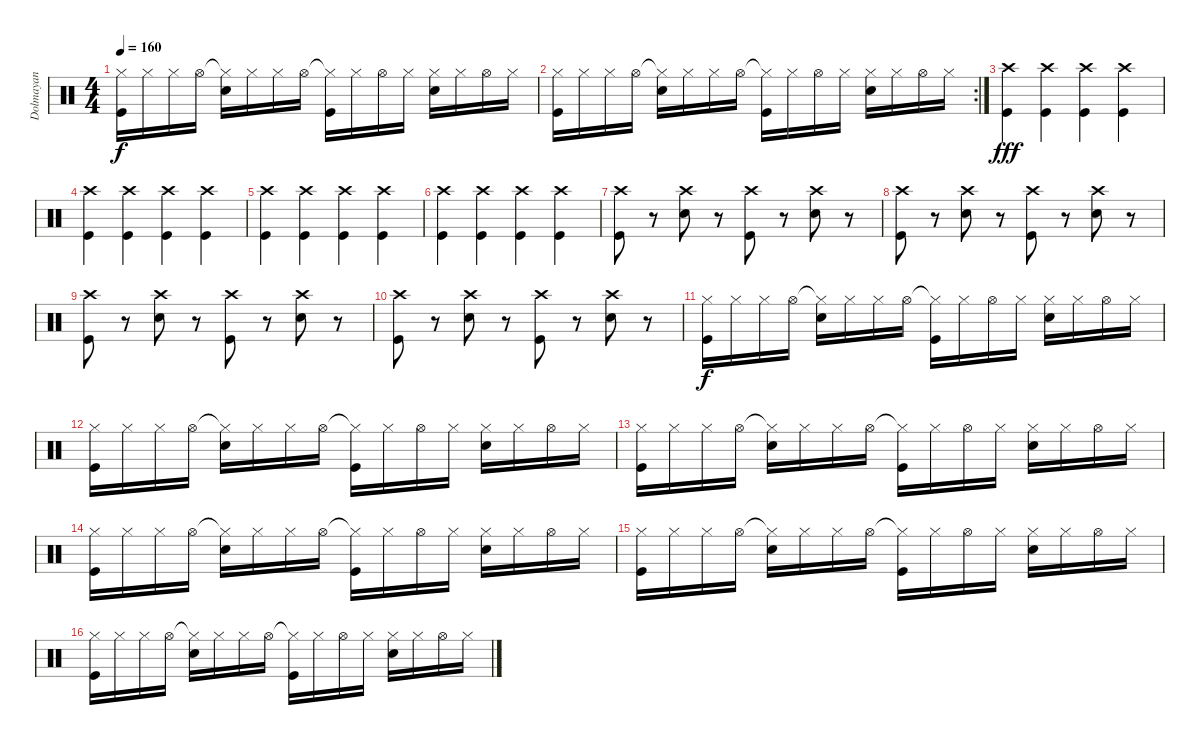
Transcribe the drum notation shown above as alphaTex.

\track ("Dolmayan" "Dolmayan") {instrument percussion}
\staff {score}
\articulation defaults
\ts (4 4)
\tempo 160
\clef neutral
\ks c
("Hi-Hat (closed)" "Kick (hit)").16{dy f} "Hi-Hat (closed)".16 "Hi-Hat (closed)".16 "Hi-Hat (open)".16 ("Hi-Hat (closed)"{t} "Electric Snare (hit)").16 "Hi-Hat (closed)".16 "Hi-Hat (closed)".16 "Hi-Hat (open)".16 ("Hi-Hat (closed)"{t} "Kick (hit)").16 "Hi-Hat (closed)".16 "Hi-Hat (open)".16 "Hi-Hat (closed)".16 ("Hi-Hat (closed)" "Electric Snare (hit)").16 "Hi-Hat (closed)".16 "Hi-Hat (open)".16 "Hi-Hat (closed)".16 |
\rc 2
("Hi-Hat (closed)" "Kick (hit)").16 "Hi-Hat (closed)".16 "Hi-Hat (closed)".16 "Hi-Hat (open)".16 ("Hi-Hat (closed)"{t} "Electric Snare (hit)").16 "Hi-Hat (closed)".16 "Hi-Hat (closed)".16 "Hi-Hat (open)".16 ("Hi-Hat (closed)"{t} "Kick (hit)").16 "Hi-Hat (closed)".16 "Hi-Hat (open)".16 "Hi-Hat (closed)".16 ("Hi-Hat (closed)" "Electric Snare (hit)").16 "Hi-Hat (closed)".16 "Hi-Hat (open)".16 "Hi-Hat (closed)".16 |
("Crash high (hit)" "Kick (hit)").4{dy fff} ("Crash high (hit)" "Kick (hit)").4 ("Crash high (hit)" "Kick (hit)").4 ("Crash high (hit)" "Kick (hit)").4 |
("Crash high (hit)" "Kick (hit)").4 ("Crash high (hit)" "Kick (hit)").4 ("Crash high (hit)" "Kick (hit)").4 ("Crash high (hit)" "Kick (hit)").4 |
("Crash high (hit)" "Kick (hit)").4 ("Crash high (hit)" "Kick (hit)").4 ("Crash high (hit)" "Kick (hit)").4 ("Crash high (hit)" "Kick (hit)").4 |
("Crash high (hit)" "Kick (hit)").4 ("Crash high (hit)" "Kick (hit)").4 ("Crash high (hit)" "Kick (hit)").4 ("Crash high (hit)" "Kick (hit)").4 |
("Crash high (hit)" "Kick (hit)").8 r.8 ("Crash high (hit)" "Electric Snare (hit)").8 r.8 ("Crash high (hit)" "Kick (hit)").8 r.8 ("Crash high (hit)" "Electric Snare (hit)").8 r.8 |
("Crash high (hit)" "Kick (hit)").8 r.8 ("Crash high (hit)" "Electric Snare (hit)").8 r.8 ("Crash high (hit)" "Kick (hit)").8 r.8 ("Crash high (hit)" "Electric Snare (hit)").8 r.8 |
("Crash high (hit)" "Kick (hit)").8 r.8 ("Crash high (hit)" "Electric Snare (hit)").8 r.8 ("Crash high (hit)" "Kick (hit)").8 r.8 ("Crash high (hit)" "Electric Snare (hit)").8 r.8 |
("Crash high (hit)" "Kick (hit)").8 r.8 ("Crash high (hit)" "Electric Snare (hit)").8 r.8 ("Crash high (hit)" "Kick (hit)").8 r.8 ("Crash high (hit)" "Electric Snare (hit)").8 r.8 |
("Hi-Hat (closed)" "Kick (hit)").16{dy f} "Hi-Hat (closed)".16 "Hi-Hat (closed)".16 "Hi-Hat (open)".16 ("Hi-Hat (closed)"{t} "Electric Snare (hit)").16 "Hi-Hat (closed)".16 "Hi-Hat (closed)".16 "Hi-Hat (open)".16 ("Hi-Hat (closed)"{t} "Kick (hit)").16 "Hi-Hat (closed)".16 "Hi-Hat (open)".16 "Hi-Hat (closed)".16 ("Hi-Hat (closed)" "Electric Snare (hit)").16 "Hi-Hat (closed)".16 "Hi-Hat (open)".16 "Hi-Hat (closed)".16 |
("Hi-Hat (closed)" "Kick (hit)").16 "Hi-Hat (closed)".16 "Hi-Hat (closed)".16 "Hi-Hat (open)".16 ("Hi-Hat (closed)"{t} "Electric Snare (hit)").16 "Hi-Hat (closed)".16 "Hi-Hat (closed)".16 "Hi-Hat (open)".16 ("Hi-Hat (closed)"{t} "Kick (hit)").16 "Hi-Hat (closed)".16 "Hi-Hat (open)".16 "Hi-Hat (closed)".16 ("Hi-Hat (closed)" "Electric Snare (hit)").16 "Hi-Hat (closed)".16 "Hi-Hat (open)".16 "Hi-Hat (closed)".16 |
("Hi-Hat (closed)" "Kick (hit)").16 "Hi-Hat (closed)".16 "Hi-Hat (closed)".16 "Hi-Hat (open)".16 ("Hi-Hat (closed)"{t} "Electric Snare (hit)").16 "Hi-Hat (closed)".16 "Hi-Hat (closed)".16 "Hi-Hat (open)".16 ("Hi-Hat (closed)"{t} "Kick (hit)").16 "Hi-Hat (closed)".16 "Hi-Hat (open)".16 "Hi-Hat (closed)".16 ("Hi-Hat (closed)" "Electric Snare (hit)").16 "Hi-Hat (closed)".16 "Hi-Hat (open)".16 "Hi-Hat (closed)".16 |
("Hi-Hat (closed)" "Kick (hit)").16 "Hi-Hat (closed)".16 "Hi-Hat (closed)".16 "Hi-Hat (open)".16 ("Hi-Hat (closed)"{t} "Electric Snare (hit)").16 "Hi-Hat (closed)".16 "Hi-Hat (closed)".16 "Hi-Hat (open)".16 ("Hi-Hat (closed)"{t} "Kick (hit)").16 "Hi-Hat (closed)".16 "Hi-Hat (open)".16 "Hi-Hat (closed)".16 ("Hi-Hat (closed)" "Electric Snare (hit)").16 "Hi-Hat (closed)".16 "Hi-Hat (open)".16 "Hi-Hat (closed)".16 |
("Hi-Hat (closed)" "Kick (hit)").16 "Hi-Hat (closed)".16 "Hi-Hat (closed)".16 "Hi-Hat (open)".16 ("Hi-Hat (closed)"{t} "Electric Snare (hit)").16 "Hi-Hat (closed)".16 "Hi-Hat (closed)".16 "Hi-Hat (open)".16 ("Hi-Hat (closed)"{t} "Kick (hit)").16 "Hi-Hat (closed)".16 "Hi-Hat (open)".16 "Hi-Hat (closed)".16 ("Hi-Hat (closed)" "Electric Snare (hit)").16 "Hi-Hat (closed)".16 "Hi-Hat (open)".16 "Hi-Hat (closed)".16 |
("Hi-Hat (closed)" "Kick (hit)").16 "Hi-Hat (closed)".16 "Hi-Hat (closed)".16 "Hi-Hat (open)".16 ("Hi-Hat (closed)"{t} "Electric Snare (hit)").16 "Hi-Hat (closed)".16 "Hi-Hat (closed)".16 "Hi-Hat (open)".16 ("Hi-Hat (closed)"{t} "Kick (hit)").16 "Hi-Hat (closed)".16 "Hi-Hat (open)".16 "Hi-Hat (closed)".16 ("Hi-Hat (closed)" "Electric Snare (hit)").16 "Hi-Hat (closed)".16 "Hi-Hat (open)".16 "Hi-Hat (closed)".16
